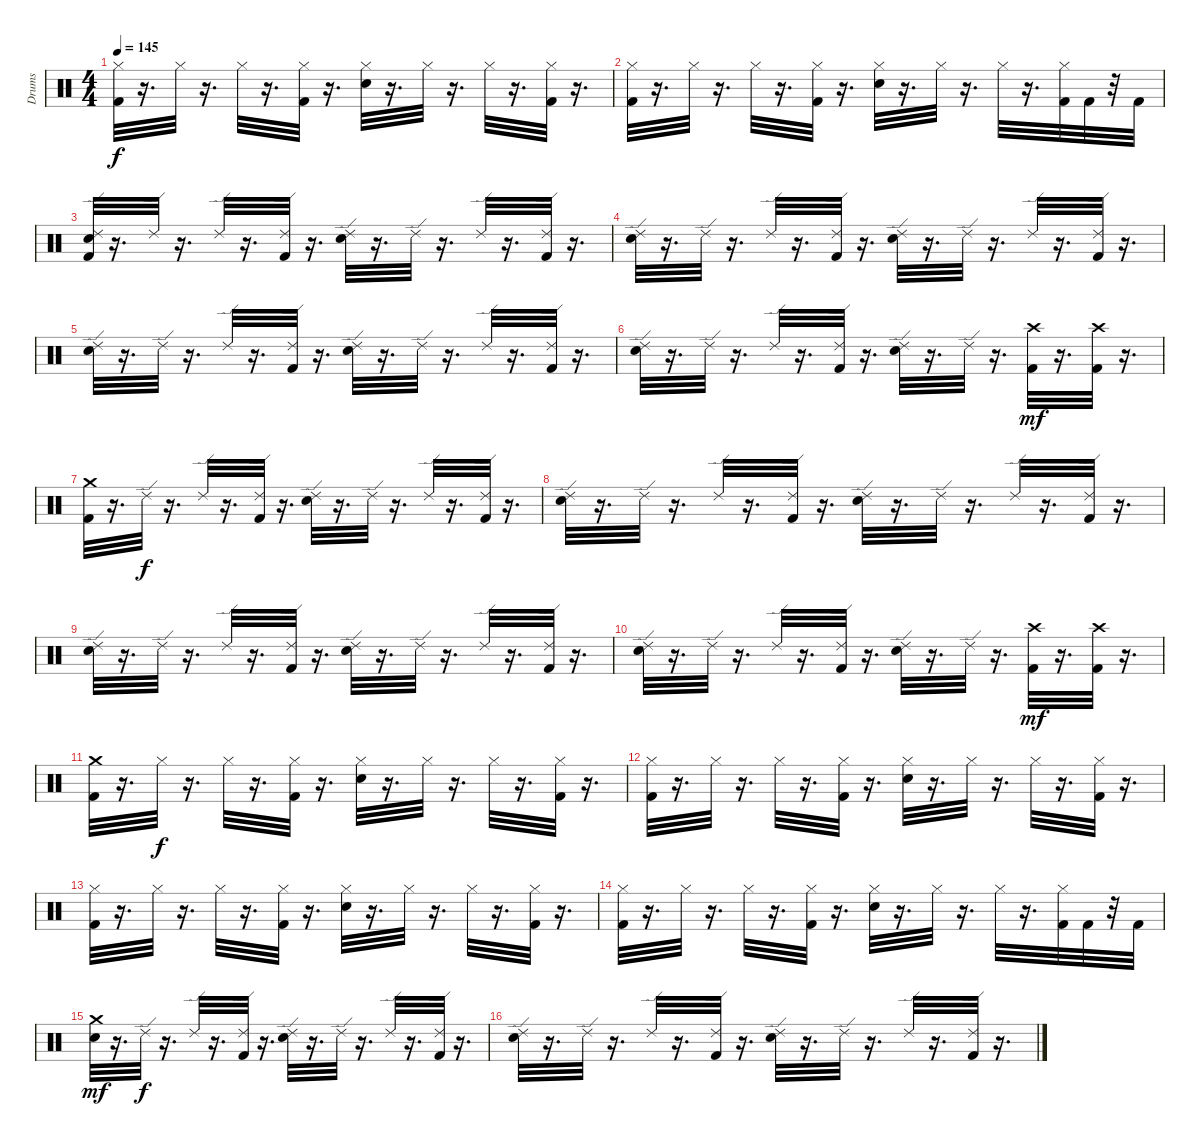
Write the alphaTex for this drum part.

\track ("Drums" "Drums") {instrument percussion}
\staff {score}
\articulation defaults
\ts (4 4)
\tempo 145
\clef neutral
\ks c
("Kick (hit) 2" "Hi-Hat (closed)").32{dy f} r.16{d} "Hi-Hat (closed)".32 r.16{d} "Hi-Hat (closed)".32 r.16{d} ("Kick (hit) 2" "Hi-Hat (closed)").32 r.16{d} ("Snare (hit) 2" "Hi-Hat (closed)").32 r.16{d} "Hi-Hat (closed)".32 r.16{d} "Hi-Hat (closed)".32 r.16{d} ("Kick (hit) 2" "Hi-Hat (closed)").32 r.16{d} |
("Kick (hit) 2" "Hi-Hat (closed)").32 r.16{d} "Hi-Hat (closed)".32 r.16{d} "Hi-Hat (closed)".32 r.16{d} ("Kick (hit) 2" "Hi-Hat (closed)").32 r.16{d} ("Snare (hit) 2" "Hi-Hat (closed)").32 r.16{d} "Hi-Hat (closed)".32 r.16{d} "Hi-Hat (closed)".32 r.16{d} ("Kick (hit) 2" "Hi-Hat (closed)").32 "Kick (hit) 2".32 r.32 "Kick (hit) 2".32 |
("Kick (hit) 2" "Snare (hit) 2" "Ride (edge) 2").32 r.16{d} "Ride (edge) 2".32 r.16{d} "Ride (edge) 2".32 r.16{d} ("Kick (hit) 2" "Ride (edge) 2").32 r.16{d} ("Snare (hit) 2" "Ride (edge) 2").32 r.16{d} "Ride (edge) 2".32 r.16{d} "Ride (edge) 2".32 r.16{d} ("Kick (hit) 2" "Ride (edge) 2").32 r.16{d} |
("Snare (hit) 2" "Ride (edge) 2").32 r.16{d} "Ride (edge) 2".32 r.16{d} "Ride (edge) 2".32 r.16{d} ("Kick (hit) 2" "Ride (edge) 2").32 r.16{d} ("Snare (hit) 2" "Ride (edge) 2").32 r.16{d} "Ride (edge) 2".32 r.16{d} "Ride (edge) 2".32 r.16{d} ("Kick (hit) 2" "Ride (edge) 2").32 r.16{d} |
("Snare (hit) 2" "Ride (edge) 2").32 r.16{d} "Ride (edge) 2".32 r.16{d} "Ride (edge) 2".32 r.16{d} ("Kick (hit) 2" "Ride (edge) 2").32 r.16{d} ("Snare (hit) 2" "Ride (edge) 2").32 r.16{d} "Ride (edge) 2".32 r.16{d} "Ride (edge) 2".32 r.16{d} ("Kick (hit) 2" "Ride (edge) 2").32 r.16{d} |
("Snare (hit) 2" "Ride (edge) 2").32 r.16{d} "Ride (edge) 2".32 r.16{d} "Ride (edge) 2".32 r.16{d} ("Kick (hit) 2" "Ride (edge) 2").32 r.16{d} ("Snare (hit) 2" "Ride (edge) 2").32 r.16{d} "Ride (edge) 2".32 r.16{d} ("Kick (hit) 2" "Crash high (hit)").32{dy mf} r.16{d} ("Kick (hit) 2" "Crash high (hit)").32 r.16{d} |
("Kick (hit) 2" "Crash medium (hit)").32 r.16{d} "Ride (edge) 2".32{dy f} r.16{d} "Ride (edge) 2".32 r.16{d} ("Kick (hit) 2" "Ride (edge) 2").32 r.16{d} ("Snare (hit) 2" "Ride (edge) 2").32 r.16{d} "Ride (edge) 2".32 r.16{d} "Ride (edge) 2".32 r.16{d} ("Kick (hit) 2" "Ride (edge) 2").32 r.16{d} |
("Snare (hit) 2" "Ride (edge) 2").32 r.16{d} "Ride (edge) 2".32 r.16{d} "Ride (edge) 2".32 r.16{d} ("Kick (hit) 2" "Ride (edge) 2").32 r.16{d} ("Snare (hit) 2" "Ride (edge) 2").32 r.16{d} "Ride (edge) 2".32 r.16{d} "Ride (edge) 2".32 r.16{d} ("Kick (hit) 2" "Ride (edge) 2").32 r.16{d} |
("Snare (hit) 2" "Ride (edge) 2").32 r.16{d} "Ride (edge) 2".32 r.16{d} "Ride (edge) 2".32 r.16{d} ("Kick (hit) 2" "Ride (edge) 2").32 r.16{d} ("Snare (hit) 2" "Ride (edge) 2").32 r.16{d} "Ride (edge) 2".32 r.16{d} "Ride (edge) 2".32 r.16{d} ("Kick (hit) 2" "Ride (edge) 2").32 r.16{d} |
("Snare (hit) 2" "Ride (edge) 2").32 r.16{d} "Ride (edge) 2".32 r.16{d} "Ride (edge) 2".32 r.16{d} ("Kick (hit) 2" "Ride (edge) 2").32 r.16{d} ("Snare (hit) 2" "Ride (edge) 2").32 r.16{d} "Ride (edge) 2".32 r.16{d} ("Kick (hit) 2" "Crash high (hit)").32{dy mf} r.16{d} ("Kick (hit) 2" "Crash high (hit)").32 r.16{d} |
("Kick (hit) 2" "Crash medium (hit)").32 r.16{d} "Hi-Hat (closed)".32{dy f} r.16{d} "Hi-Hat (closed)".32 r.16{d} ("Kick (hit) 2" "Hi-Hat (closed)").32 r.16{d} ("Snare (hit) 2" "Hi-Hat (closed)").32 r.16{d} "Hi-Hat (closed)".32 r.16{d} "Hi-Hat (closed)".32 r.16{d} ("Kick (hit) 2" "Hi-Hat (closed)").32 r.16{d} |
("Kick (hit) 2" "Hi-Hat (closed)").32 r.16{d} "Hi-Hat (closed)".32 r.16{d} "Hi-Hat (closed)".32 r.16{d} ("Kick (hit) 2" "Hi-Hat (closed)").32 r.16{d} ("Snare (hit) 2" "Hi-Hat (closed)").32 r.16{d} "Hi-Hat (closed)".32 r.16{d} "Hi-Hat (closed)".32 r.16{d} ("Kick (hit) 2" "Hi-Hat (closed)").32 r.16{d} |
("Kick (hit) 2" "Hi-Hat (closed)").32 r.16{d} "Hi-Hat (closed)".32 r.16{d} "Hi-Hat (closed)".32 r.16{d} ("Kick (hit) 2" "Hi-Hat (closed)").32 r.16{d} ("Snare (hit) 2" "Hi-Hat (closed)").32 r.16{d} "Hi-Hat (closed)".32 r.16{d} "Hi-Hat (closed)".32 r.16{d} ("Kick (hit) 2" "Hi-Hat (closed)").32 r.16{d} |
("Kick (hit) 2" "Hi-Hat (closed)").32 r.16{d} "Hi-Hat (closed)".32 r.16{d} "Hi-Hat (closed)".32 r.16{d} ("Kick (hit) 2" "Hi-Hat (closed)").32 r.16{d} ("Snare (hit) 2" "Hi-Hat (closed)").32 r.16{d} "Hi-Hat (closed)".32 r.16{d} "Hi-Hat (closed)".32 r.16{d} ("Kick (hit) 2" "Hi-Hat (closed)").32 "Kick (hit) 2".32 r.32 "Kick (hit) 2".32 |
("Snare (hit) 2" "Crash medium (hit)").32{dy mf} r.16{d} "Ride (edge) 2".32{dy f} r.16{d} "Ride (edge) 2".32 r.16{d} ("Kick (hit) 2" "Ride (edge) 2").32 r.16{d} ("Snare (hit) 2" "Ride (edge) 2").32 r.16{d} "Ride (edge) 2".32 r.16{d} "Ride (edge) 2".32 r.16{d} ("Kick (hit) 2" "Ride (edge) 2").32 r.16{d} |
("Snare (hit) 2" "Ride (edge) 2").32 r.16{d} "Ride (edge) 2".32 r.16{d} "Ride (edge) 2".32 r.16{d} ("Kick (hit) 2" "Ride (edge) 2").32 r.16{d} ("Snare (hit) 2" "Ride (edge) 2").32 r.16{d} "Ride (edge) 2".32 r.16{d} "Ride (edge) 2".32 r.16{d} ("Kick (hit) 2" "Ride (edge) 2").32 r.16{d}
